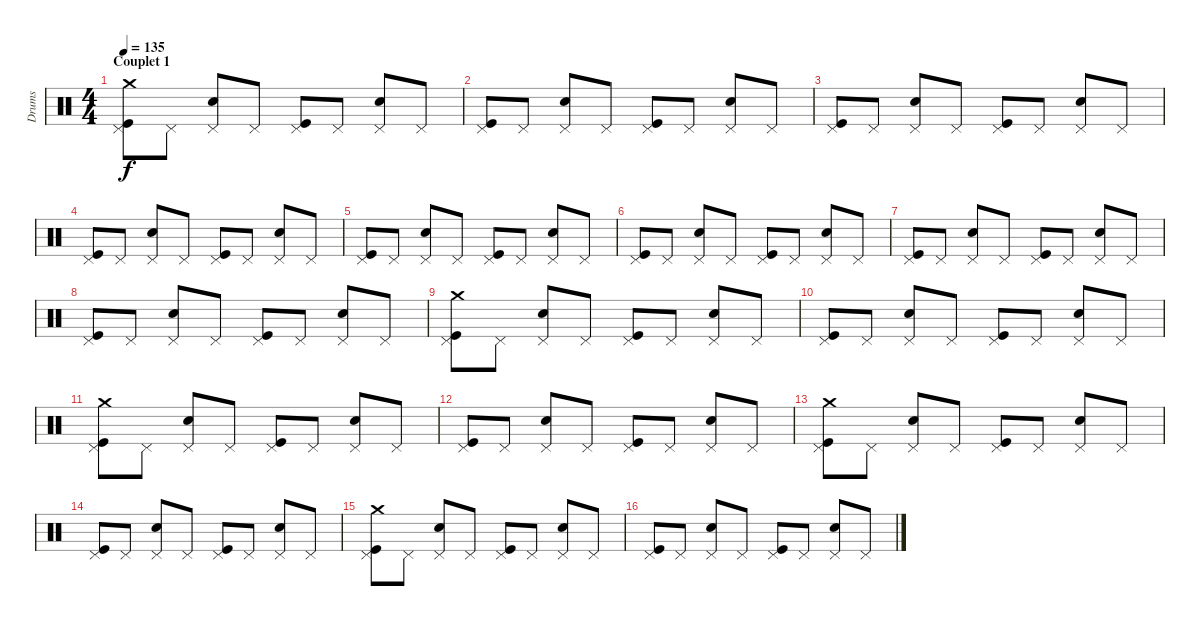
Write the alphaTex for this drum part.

\track ("Drums" "Drums") {instrument percussion}
\staff {score}
\articulation defaults
\ts (4 4)
\section ("" "Couplet 1")
\tempo 135
\clef neutral
\ks c
("Pedal Hi-Hat (hit)" "Kick (hit)" "Crash medium (hit)").8{dy f} "Pedal Hi-Hat (hit)".8 ("Pedal Hi-Hat (hit)" "Electric Snare (hit)").8 "Pedal Hi-Hat (hit)".8 ("Pedal Hi-Hat (hit)" "Kick (hit)").8 "Pedal Hi-Hat (hit)".8 ("Pedal Hi-Hat (hit)" "Electric Snare (hit)").8 "Pedal Hi-Hat (hit)".8 |
("Pedal Hi-Hat (hit)" "Kick (hit)").8 "Pedal Hi-Hat (hit)".8 ("Pedal Hi-Hat (hit)" "Electric Snare (hit)").8 "Pedal Hi-Hat (hit)".8 ("Pedal Hi-Hat (hit)" "Kick (hit)").8 "Pedal Hi-Hat (hit)".8 ("Pedal Hi-Hat (hit)" "Electric Snare (hit)").8 "Pedal Hi-Hat (hit)".8 |
("Pedal Hi-Hat (hit)" "Kick (hit)").8 "Pedal Hi-Hat (hit)".8 ("Pedal Hi-Hat (hit)" "Electric Snare (hit)").8 "Pedal Hi-Hat (hit)".8 ("Pedal Hi-Hat (hit)" "Kick (hit)").8 "Pedal Hi-Hat (hit)".8 ("Pedal Hi-Hat (hit)" "Electric Snare (hit)").8 "Pedal Hi-Hat (hit)".8 |
("Pedal Hi-Hat (hit)" "Kick (hit)").8 "Pedal Hi-Hat (hit)".8 ("Pedal Hi-Hat (hit)" "Electric Snare (hit)").8 "Pedal Hi-Hat (hit)".8 ("Pedal Hi-Hat (hit)" "Kick (hit)").8 "Pedal Hi-Hat (hit)".8 ("Pedal Hi-Hat (hit)" "Electric Snare (hit)").8 "Pedal Hi-Hat (hit)".8 |
("Pedal Hi-Hat (hit)" "Kick (hit)").8 "Pedal Hi-Hat (hit)".8 ("Pedal Hi-Hat (hit)" "Electric Snare (hit)").8 "Pedal Hi-Hat (hit)".8 ("Pedal Hi-Hat (hit)" "Kick (hit)").8 "Pedal Hi-Hat (hit)".8 ("Pedal Hi-Hat (hit)" "Electric Snare (hit)").8 "Pedal Hi-Hat (hit)".8 |
("Pedal Hi-Hat (hit)" "Kick (hit)").8 "Pedal Hi-Hat (hit)".8 ("Pedal Hi-Hat (hit)" "Electric Snare (hit)").8 "Pedal Hi-Hat (hit)".8 ("Pedal Hi-Hat (hit)" "Kick (hit)").8 "Pedal Hi-Hat (hit)".8 ("Pedal Hi-Hat (hit)" "Electric Snare (hit)").8 "Pedal Hi-Hat (hit)".8 |
("Pedal Hi-Hat (hit)" "Kick (hit)").8 "Pedal Hi-Hat (hit)".8 ("Pedal Hi-Hat (hit)" "Electric Snare (hit)").8 "Pedal Hi-Hat (hit)".8 ("Pedal Hi-Hat (hit)" "Kick (hit)").8 "Pedal Hi-Hat (hit)".8 ("Pedal Hi-Hat (hit)" "Electric Snare (hit)").8 "Pedal Hi-Hat (hit)".8 |
("Pedal Hi-Hat (hit)" "Kick (hit)").8 "Pedal Hi-Hat (hit)".8 ("Pedal Hi-Hat (hit)" "Electric Snare (hit)").8 "Pedal Hi-Hat (hit)".8 ("Pedal Hi-Hat (hit)" "Kick (hit)").8 "Pedal Hi-Hat (hit)".8 ("Pedal Hi-Hat (hit)" "Electric Snare (hit)").8 "Pedal Hi-Hat (hit)".8 |
("Pedal Hi-Hat (hit)" "Kick (hit)" "Crash medium (hit)").8 "Pedal Hi-Hat (hit)".8 ("Pedal Hi-Hat (hit)" "Electric Snare (hit)").8 "Pedal Hi-Hat (hit)".8 ("Pedal Hi-Hat (hit)" "Kick (hit)").8 "Pedal Hi-Hat (hit)".8 ("Pedal Hi-Hat (hit)" "Electric Snare (hit)").8 "Pedal Hi-Hat (hit)".8 |
("Pedal Hi-Hat (hit)" "Kick (hit)").8 "Pedal Hi-Hat (hit)".8 ("Pedal Hi-Hat (hit)" "Electric Snare (hit)").8 "Pedal Hi-Hat (hit)".8 ("Pedal Hi-Hat (hit)" "Kick (hit)").8 "Pedal Hi-Hat (hit)".8 ("Pedal Hi-Hat (hit)" "Electric Snare (hit)").8 "Pedal Hi-Hat (hit)".8 |
("Pedal Hi-Hat (hit)" "Kick (hit)" "Crash medium (hit)").8 "Pedal Hi-Hat (hit)".8 ("Pedal Hi-Hat (hit)" "Electric Snare (hit)").8 "Pedal Hi-Hat (hit)".8 ("Pedal Hi-Hat (hit)" "Kick (hit)").8 "Pedal Hi-Hat (hit)".8 ("Pedal Hi-Hat (hit)" "Electric Snare (hit)").8 "Pedal Hi-Hat (hit)".8 |
("Pedal Hi-Hat (hit)" "Kick (hit)").8 "Pedal Hi-Hat (hit)".8 ("Pedal Hi-Hat (hit)" "Electric Snare (hit)").8 "Pedal Hi-Hat (hit)".8 ("Pedal Hi-Hat (hit)" "Kick (hit)").8 "Pedal Hi-Hat (hit)".8 ("Pedal Hi-Hat (hit)" "Electric Snare (hit)").8 "Pedal Hi-Hat (hit)".8 |
("Pedal Hi-Hat (hit)" "Kick (hit)" "Crash medium (hit)").8 "Pedal Hi-Hat (hit)".8 ("Pedal Hi-Hat (hit)" "Electric Snare (hit)").8 "Pedal Hi-Hat (hit)".8 ("Pedal Hi-Hat (hit)" "Kick (hit)").8 "Pedal Hi-Hat (hit)".8 ("Pedal Hi-Hat (hit)" "Electric Snare (hit)").8 "Pedal Hi-Hat (hit)".8 |
("Pedal Hi-Hat (hit)" "Kick (hit)").8 "Pedal Hi-Hat (hit)".8 ("Pedal Hi-Hat (hit)" "Electric Snare (hit)").8 "Pedal Hi-Hat (hit)".8 ("Pedal Hi-Hat (hit)" "Kick (hit)").8 "Pedal Hi-Hat (hit)".8 ("Pedal Hi-Hat (hit)" "Electric Snare (hit)").8 "Pedal Hi-Hat (hit)".8 |
("Pedal Hi-Hat (hit)" "Kick (hit)" "Crash medium (hit)").8 "Pedal Hi-Hat (hit)".8 ("Pedal Hi-Hat (hit)" "Electric Snare (hit)").8 "Pedal Hi-Hat (hit)".8 ("Pedal Hi-Hat (hit)" "Kick (hit)").8 "Pedal Hi-Hat (hit)".8 ("Pedal Hi-Hat (hit)" "Electric Snare (hit)").8 "Pedal Hi-Hat (hit)".8 |
("Pedal Hi-Hat (hit)" "Kick (hit)").8 "Pedal Hi-Hat (hit)".8 ("Pedal Hi-Hat (hit)" "Electric Snare (hit)").8 "Pedal Hi-Hat (hit)".8 ("Pedal Hi-Hat (hit)" "Kick (hit)").8 "Pedal Hi-Hat (hit)".8 ("Pedal Hi-Hat (hit)" "Electric Snare (hit)").8 "Pedal Hi-Hat (hit)".8
